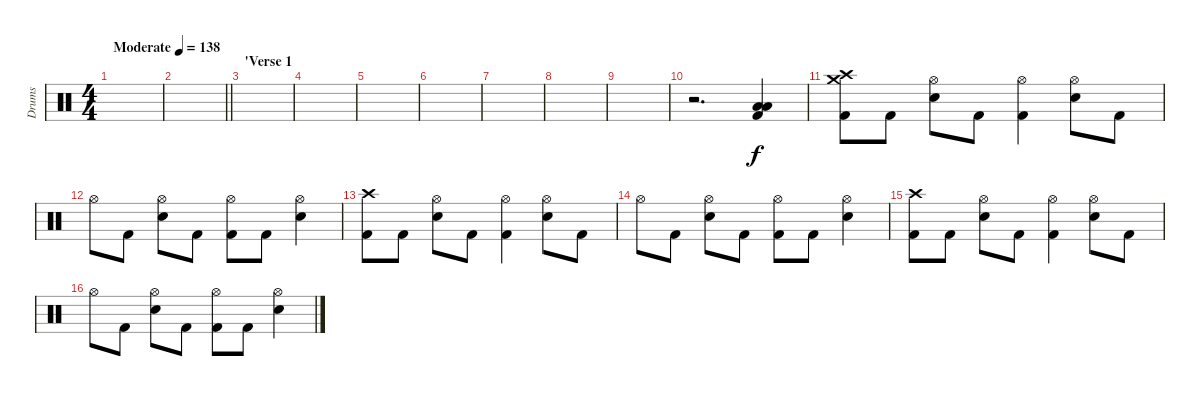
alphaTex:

\track ("Drums" "Drums") {instrument percussion}
\staff {score}
\articulation defaults
\ts (4 4)
\tempo (138 "Moderate")
\clef neutral
\ks c
|
\barLineRight lightlight
|
\section ("" "'Verse 1")
|
|
|
|
|
|
|
r.2{d} ("Low Tom (hit)" "Low Floor Tom (hit)" "Kick (hit) 2").4 |
("Crash high (hit)" "Crash medium (hit)" "Kick (hit) 2").8 "Kick (hit) 2".8 ("Hi-Hat (open)" "Snare (hit) 2").8 "Kick (hit) 2".8 ("Hi-Hat (open)" "Kick (hit) 2").4 ("Hi-Hat (open)" "Snare (hit) 2").8 "Kick (hit) 2".8 |
"Hi-Hat (open)".8 "Kick (hit) 2".8 ("Hi-Hat (open)" "Snare (hit) 2").8 "Kick (hit) 2".8 ("Hi-Hat (open)" "Kick (hit) 2").8 "Kick (hit) 2".8 ("Hi-Hat (open)" "Snare (hit) 2").4 |
("Crash high (hit)" "Kick (hit) 2").8 "Kick (hit) 2".8 ("Hi-Hat (open)" "Snare (hit) 2").8 "Kick (hit) 2".8 ("Hi-Hat (open)" "Kick (hit) 2").4 ("Hi-Hat (open)" "Snare (hit) 2").8 "Kick (hit) 2".8 |
"Hi-Hat (open)".8 "Kick (hit) 2".8 ("Hi-Hat (open)" "Snare (hit) 2").8 "Kick (hit) 2".8 ("Hi-Hat (open)" "Kick (hit) 2").8 "Kick (hit) 2".8 ("Hi-Hat (open)" "Snare (hit) 2").4 |
("Crash high (hit)" "Kick (hit) 2").8 "Kick (hit) 2".8 ("Hi-Hat (open)" "Snare (hit) 2").8 "Kick (hit) 2".8 ("Hi-Hat (open)" "Kick (hit) 2").4 ("Hi-Hat (open)" "Snare (hit) 2").8 "Kick (hit) 2".8 |
"Hi-Hat (open)".8 "Kick (hit) 2".8 ("Hi-Hat (open)" "Snare (hit) 2").8 "Kick (hit) 2".8 ("Hi-Hat (open)" "Kick (hit) 2").8 "Kick (hit) 2".8 ("Hi-Hat (open)" "Snare (hit) 2").4
